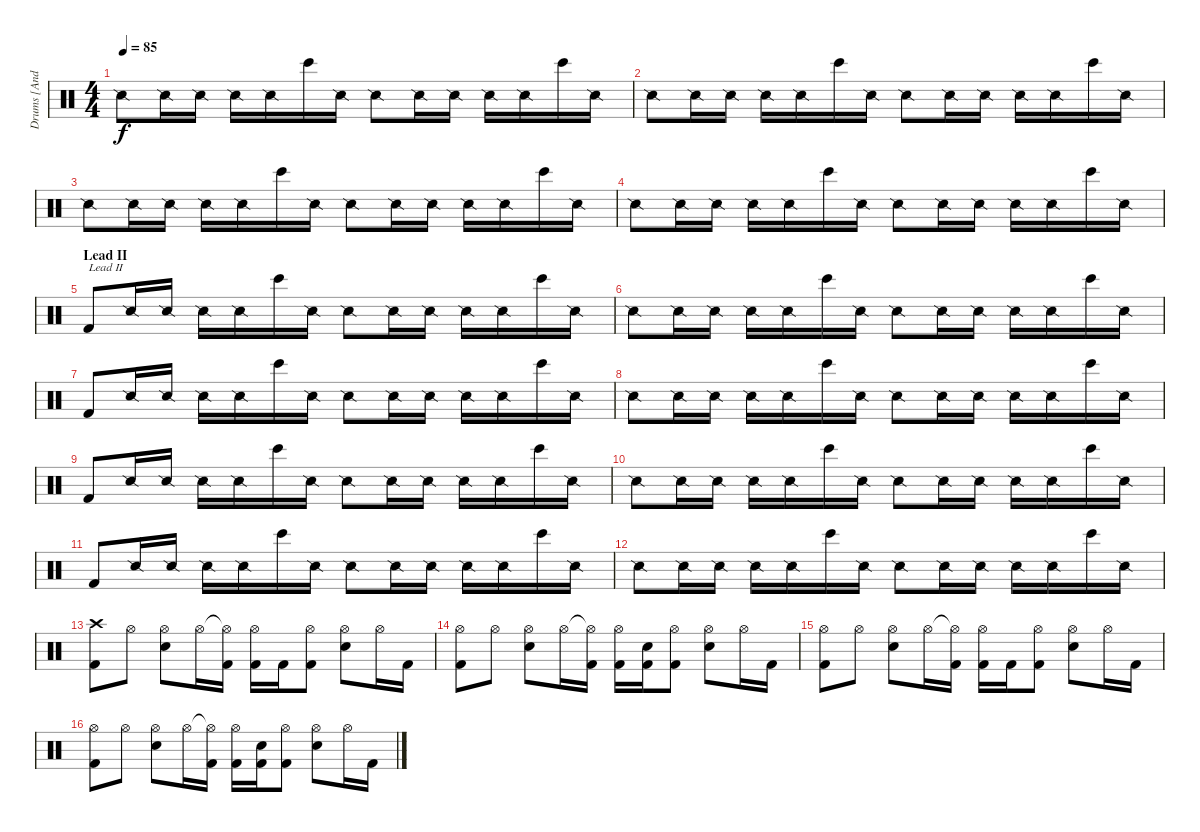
\track ("Drums [Anders Kobro]" "Drums [And") {instrument percussion}
\staff {score}
\articulation defaults
\ts (4 4)
\tempo 85
\clef neutral
\ks c "Snare (side stick) 2".8{dy f} "Snare (side stick) 2".16 "Snare (side stick) 2".16 "Snare (side stick) 2".16 "Snare (side stick) 2".16 "Bongo High (hit)".16 "Snare (side stick) 2".16 "Snare (side stick) 2".8 "Snare (side stick) 2".16 "Snare (side stick) 2".16 "Snare (side stick) 2".16 "Snare (side stick) 2".16 "Bongo High (hit)".16 "Snare (side stick) 2".16
|
"Snare (side stick) 2".8 "Snare (side stick) 2".16 "Snare (side stick) 2".16 "Snare (side stick) 2".16 "Snare (side stick) 2".16 "Bongo High (hit)".16 "Snare (side stick) 2".16 "Snare (side stick) 2".8 "Snare (side stick) 2".16 "Snare (side stick) 2".16 "Snare (side stick) 2".16 "Snare (side stick) 2".16 "Bongo High (hit)".16 "Snare (side stick) 2".16 |
"Snare (side stick) 2".8 "Snare (side stick) 2".16 "Snare (side stick) 2".16 "Snare (side stick) 2".16 "Snare (side stick) 2".16 "Bongo High (hit)".16 "Snare (side stick) 2".16 "Snare (side stick) 2".8 "Snare (side stick) 2".16 "Snare (side stick) 2".16 "Snare (side stick) 2".16 "Snare (side stick) 2".16 "Bongo High (hit)".16 "Snare (side stick) 2".16 |
"Snare (side stick) 2".8 "Snare (side stick) 2".16 "Snare (side stick) 2".16 "Snare (side stick) 2".16 "Snare (side stick) 2".16 "Bongo High (hit)".16 "Snare (side stick) 2".16 "Snare (side stick) 2".8 "Snare (side stick) 2".16 "Snare (side stick) 2".16 "Snare (side stick) 2".16 "Snare (side stick) 2".16 "Bongo High (hit)".16 "Snare (side stick) 2".16 |
\section ("" "Lead II")
"Kick (hit) 2".8{txt "Lead II"} "Snare (side stick) 2".16 "Snare (side stick) 2".16 "Snare (side stick) 2".16 "Snare (side stick) 2".16 "Bongo High (hit)".16 "Snare (side stick) 2".16 "Snare (side stick) 2".8 "Snare (side stick) 2".16 "Snare (side stick) 2".16 "Snare (side stick) 2".16 "Snare (side stick) 2".16 "Bongo High (hit)".16 "Snare (side stick) 2".16 |
"Snare (side stick) 2".8 "Snare (side stick) 2".16 "Snare (side stick) 2".16 "Snare (side stick) 2".16 "Snare (side stick) 2".16 "Bongo High (hit)".16 "Snare (side stick) 2".16 "Snare (side stick) 2".8 "Snare (side stick) 2".16 "Snare (side stick) 2".16 "Snare (side stick) 2".16 "Snare (side stick) 2".16 "Bongo High (hit)".16 "Snare (side stick) 2".16 |
"Kick (hit) 2".8 "Snare (side stick) 2".16 "Snare (side stick) 2".16 "Snare (side stick) 2".16 "Snare (side stick) 2".16 "Bongo High (hit)".16 "Snare (side stick) 2".16 "Snare (side stick) 2".8 "Snare (side stick) 2".16 "Snare (side stick) 2".16 "Snare (side stick) 2".16 "Snare (side stick) 2".16 "Bongo High (hit)".16 "Snare (side stick) 2".16 |
"Snare (side stick) 2".8 "Snare (side stick) 2".16 "Snare (side stick) 2".16 "Snare (side stick) 2".16 "Snare (side stick) 2".16 "Bongo High (hit)".16 "Snare (side stick) 2".16 "Snare (side stick) 2".8 "Snare (side stick) 2".16 "Snare (side stick) 2".16 "Snare (side stick) 2".16 "Snare (side stick) 2".16 "Bongo High (hit)".16 "Snare (side stick) 2".16 |
"Kick (hit) 2".8 "Snare (side stick) 2".16 "Snare (side stick) 2".16 "Snare (side stick) 2".16 "Snare (side stick) 2".16 "Bongo High (hit)".16 "Snare (side stick) 2".16 "Snare (side stick) 2".8 "Snare (side stick) 2".16 "Snare (side stick) 2".16 "Snare (side stick) 2".16 "Snare (side stick) 2".16 "Bongo High (hit)".16 "Snare (side stick) 2".16 |
"Snare (side stick) 2".8 "Snare (side stick) 2".16 "Snare (side stick) 2".16 "Snare (side stick) 2".16 "Snare (side stick) 2".16 "Bongo High (hit)".16 "Snare (side stick) 2".16 "Snare (side stick) 2".8 "Snare (side stick) 2".16 "Snare (side stick) 2".16 "Snare (side stick) 2".16 "Snare (side stick) 2".16 "Bongo High (hit)".16 "Snare (side stick) 2".16 |
"Kick (hit) 2".8 "Snare (side stick) 2".16 "Snare (side stick) 2".16 "Snare (side stick) 2".16 "Snare (side stick) 2".16 "Bongo High (hit)".16 "Snare (side stick) 2".16 "Snare (side stick) 2".8 "Snare (side stick) 2".16 "Snare (side stick) 2".16 "Snare (side stick) 2".16 "Snare (side stick) 2".16 "Bongo High (hit)".16 "Snare (side stick) 2".16 |
"Snare (side stick) 2".8 "Snare (side stick) 2".16 "Snare (side stick) 2".16 "Snare (side stick) 2".16 "Snare (side stick) 2".16 "Bongo High (hit)".16 "Snare (side stick) 2".16 "Snare (side stick) 2".8 "Snare (side stick) 2".16 "Snare (side stick) 2".16 "Snare (side stick) 2".16 "Snare (side stick) 2".16 "Bongo High (hit)".16 "Snare (side stick) 2".16 |
("Crash high (hit)" "Kick (hit) 2").8 "Hi-Hat (open)".8 ("Hi-Hat (open)" "Electric Snare (hit)").8 "Hi-Hat (open)".16 ("Hi-Hat (open)"{t} "Kick (hit) 2").16 ("Hi-Hat (open)" "Kick (hit) 2").16 "Kick (hit) 2".16 ("Hi-Hat (open)" "Kick (hit) 2").8 ("Hi-Hat (open)" "Electric Snare (hit)").8 "Hi-Hat (open)".16 "Kick (hit) 2".16 |
("Hi-Hat (open)" "Kick (hit) 2").8 "Hi-Hat (open)".8 ("Hi-Hat (open)" "Electric Snare (hit)").8 "Hi-Hat (open)".16 ("Hi-Hat (open)"{t} "Kick (hit) 2").16 ("Hi-Hat (open)" "Kick (hit) 2").16 ("Electric Snare (hit)" "Kick (hit) 2").16 ("Hi-Hat (open)" "Kick (hit) 2").8 ("Hi-Hat (open)" "Electric Snare (hit)").8 "Hi-Hat (open)".16 "Kick (hit) 2".16 |
("Hi-Hat (open)" "Kick (hit) 2").8 "Hi-Hat (open)".8 ("Hi-Hat (open)" "Electric Snare (hit)").8 "Hi-Hat (open)".16 ("Hi-Hat (open)"{t} "Kick (hit) 2").16 ("Hi-Hat (open)" "Kick (hit) 2").16 "Kick (hit) 2".16 ("Hi-Hat (open)" "Kick (hit) 2").8 ("Hi-Hat (open)" "Electric Snare (hit)").8 "Hi-Hat (open)".16 "Kick (hit) 2".16 |
("Hi-Hat (open)" "Kick (hit) 2").8 "Hi-Hat (open)".8 ("Hi-Hat (open)" "Electric Snare (hit)").8 "Hi-Hat (open)".16 ("Hi-Hat (open)"{t} "Kick (hit) 2").16 ("Hi-Hat (open)" "Kick (hit) 2").16 ("Electric Snare (hit)" "Kick (hit) 2").16 ("Hi-Hat (open)" "Kick (hit) 2").8 ("Hi-Hat (open)" "Electric Snare (hit)").8 "Hi-Hat (open)".16 "Kick (hit) 2".16
